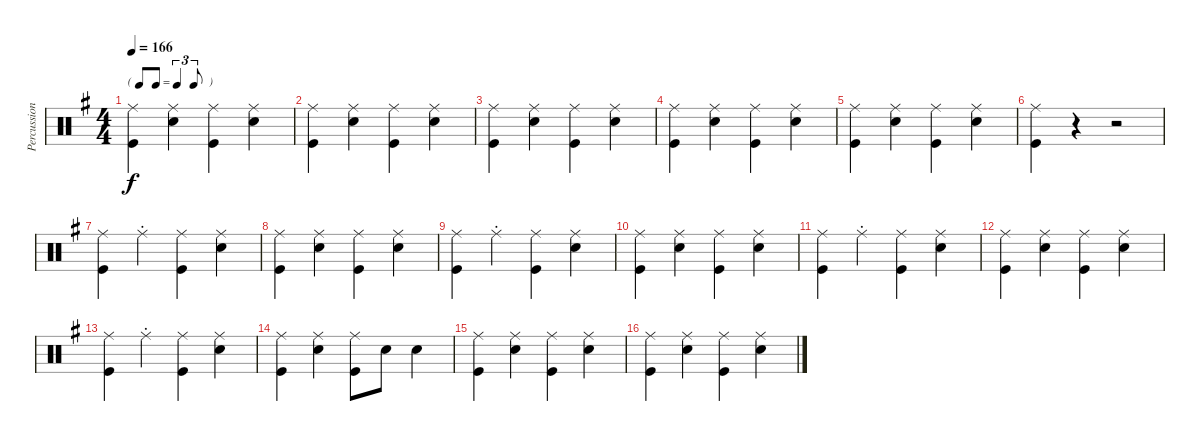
\track ("Percussion" "Percussion") {instrument percussion}
\staff {score}
\articulation defaults
\ts (4 4)
\tf triplet8th
\tempo 166
\clef neutral
\ks g
("Ride (middle)" "Kick (hit)").4{dy f} ("Ride (middle)" "Snare (hit) 2").4 ("Ride (middle)" "Kick (hit)").4 ("Ride (middle)" "Snare (hit) 2").4 |
("Ride (middle)" "Kick (hit)").4 ("Ride (middle)" "Snare (hit) 2").4 ("Ride (middle)" "Kick (hit)").4 ("Ride (middle)" "Snare (hit) 2").4 |
("Ride (middle)" "Kick (hit)").4 ("Ride (middle)" "Snare (hit) 2").4 ("Ride (middle)" "Kick (hit)").4 ("Ride (middle)" "Snare (hit) 2").4 |
("Ride (middle)" "Kick (hit)").4 ("Ride (middle)" "Snare (hit) 2").4 ("Ride (middle)" "Kick (hit)").4 ("Ride (middle)" "Snare (hit) 2").4 |
("Ride (middle)" "Kick (hit)").4 ("Ride (middle)" "Snare (hit) 2").4 ("Ride (middle)" "Kick (hit)").4 ("Ride (middle)" "Snare (hit) 2").4 |
("Ride (middle)" "Kick (hit)").4 r.4 r.2 |
("Ride (middle)" "Kick (hit)").4 "Ride (middle)"{st}.4 ("Ride (middle)" "Kick (hit)").4 ("Ride (middle)" "Snare (hit) 2").4 |
("Ride (middle)" "Kick (hit)").4 ("Ride (middle)" "Snare (hit) 2").4 ("Ride (middle)" "Kick (hit)").4 ("Ride (middle)" "Snare (hit) 2").4 |
("Ride (middle)" "Kick (hit)").4 "Ride (middle)"{st}.4 ("Ride (middle)" "Kick (hit)").4 ("Ride (middle)" "Snare (hit) 2").4 |
("Ride (middle)" "Kick (hit)").4 ("Ride (middle)" "Snare (hit) 2").4 ("Ride (middle)" "Kick (hit)").4 ("Ride (middle)" "Snare (hit) 2").4 |
("Ride (middle)" "Kick (hit)").4 "Ride (middle)"{st}.4 ("Ride (middle)" "Kick (hit)").4 ("Ride (middle)" "Snare (hit) 2").4 |
("Ride (middle)" "Kick (hit)").4 ("Ride (middle)" "Snare (hit) 2").4 ("Ride (middle)" "Kick (hit)").4 ("Ride (middle)" "Snare (hit) 2").4 |
("Ride (middle)" "Kick (hit)").4 "Ride (middle)"{st}.4 ("Ride (middle)" "Kick (hit)").4 ("Ride (middle)" "Snare (hit) 2").4 |
("Ride (middle)" "Kick (hit)").4 ("Ride (middle)" "Snare (hit) 2").4 ("Ride (middle)" "Kick (hit)").8 "Snare (hit) 2".8 "Snare (hit) 2".4 |
("Ride (middle)" "Kick (hit)").4 ("Ride (middle)" "Snare (hit) 2").4 ("Ride (middle)" "Kick (hit)").4 ("Ride (middle)" "Snare (hit) 2").4 |
("Ride (middle)" "Kick (hit)").4 ("Ride (middle)" "Snare (hit) 2").4 ("Ride (middle)" "Kick (hit)").4 ("Ride (middle)" "Snare (hit) 2").4
